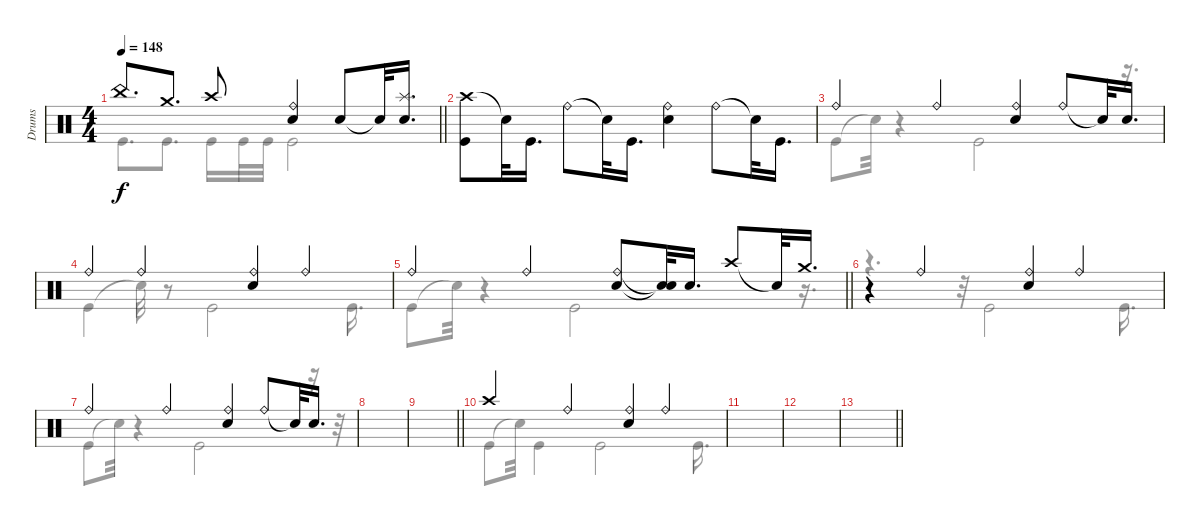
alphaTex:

\track ("Drums" "Drums") {instrument percussion}
\staff
\articulation defaults
\voice
\ts (4 4)
\tempo 148
\clef neutral
\barLineRight lightlight
\ks c "China (hit)".8{d dy f} "Crash medium (hit)".8{d} "Crash high (hit)".8
("Ride (bell)" "Electric Snare (hit)").4 "Electric Snare (hit)".8 "Snare (hit)"{t}.32 ("Splash (hit)" "Electric Snare (hit)").16{d} |
\section ("" "")
("Crash high (hit)" "Kick (hit)").8 "Snare (hit)"{t}.32 "Kick (hit)".16{d} "Ride (bell)".8 "Snare (hit)"{t}.32 "Kick (hit)".16{d} ("Ride (bell)" "Electric Snare (hit)").4 "Ride (bell)".8 "Snare (hit)"{t}.32 "Kick (hit)".16{d} |
"Ride (bell)".4 "Ride (bell)".4 ("Ride (bell)" "Electric Snare (hit)").4 "Ride (bell)".8 "Snare (hit)"{t}.32 "Electric Snare (hit)".16{d} |
"Ride (bell)".4 "Ride (bell)".4 ("Ride (bell)" "Electric Snare (hit)").4 "Ride (bell)".4 |
\barLineRight lightlight "Ride (bell)".4 "Ride (bell)".4
("Ride (bell)" "Electric Snare (hit)").8 ("Snare (hit)"{t} "Snare (hit)"{t}).32 "Electric Snare (hit)".16{d} "Crash high (hit)".8 "Snare (hit)"{t}.32 "Crash medium (hit)".16{d} |
r.4 "Ride (bell)".4 ("Ride (bell)" "Electric Snare (hit)").4 "Ride (bell)".4 |
"Ride (bell)".4 "Ride (bell)".4 ("Ride (bell)" "Electric Snare (hit)").4 "Ride (bell)".8 "Snare (hit)"{t}.32 "Electric Snare (hit)".16{d} |
|
\barLineRight lightlight
|
"Crash high (hit)".4 "Ride (bell)".4 ("Ride (bell)" "Electric Snare (hit)").4 "Ride (bell)".4 |
|
|
\barLineRight lightlight
|
|
|
\voice
\clef neutral
\ottava regular
\simile none
\barLineRight lightlight
\ks c "Kick (hit)".8{d dy f} "Kick (hit)".8{d} "Kick (hit)".16 "Kick (hit)".32 "Kick (hit)".32 "Kick (hit)".2
|
|
"Kick (hit)".8 "Snare (hit)"{t}.32 r.4 "Kick (hit)".2 r.16{d} |
"Kick (hit)".4 "Snare (hit)"{t}.32 r.8 "Kick (hit)".2 "Kick (hit)".16{d} |
\barLineRight lightlight "Kick (hit)".8 "Snare (hit)"{t}.32
r.4 "Kick (hit)".2 r.16{d} |
r.4{d} r.32 "Kick (hit)".2 "Kick (hit)".16{d} |
"Kick (hit)".8 "Snare (hit)"{t}.32 r.4 "Kick (hit)".2 r.16 r.32 |
|
\barLineRight lightlight
|
"Kick (hit)".8 "Snare (hit)"{t}.32 "Kick (hit)".4 "Kick (hit)".2 "Kick (hit)".16{d} |
|
|
\barLineRight lightlight
|
|
|
